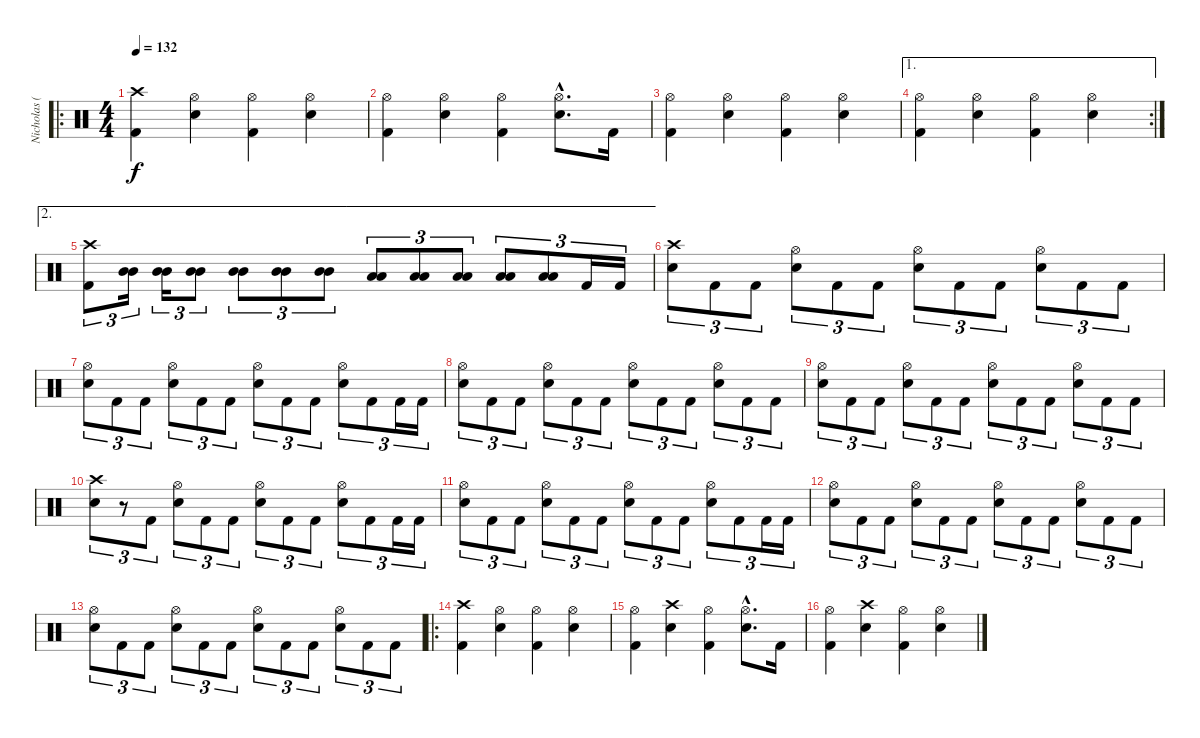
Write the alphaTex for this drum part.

\track ("Nicholas (Drums)" "Nicholas (") {instrument percussion}
\staff {score}
\articulation defaults
\ro
\ts (4 4)
\tempo 132
\clef neutral
\ks c
("Crash high (hit)" "Kick (hit) 2").4{dy f} ("Hi-Hat (open)" "Electric Snare (hit)").4 ("Hi-Hat (open)" "Kick (hit) 2").4 ("Hi-Hat (open)" "Electric Snare (hit)").4 |
("Hi-Hat (open)" "Kick (hit) 2").4 ("Hi-Hat (open)" "Electric Snare (hit)").4 ("Hi-Hat (open)" "Kick (hit) 2").4 ("Hi-Hat (open)"{hac} "Electric Snare (hit)"{hac}).8{d} "Kick (hit) 2".16 |
("Hi-Hat (open)" "Kick (hit) 2").4 ("Hi-Hat (open)" "Electric Snare (hit)").4 ("Hi-Hat (open)" "Kick (hit) 2").4 ("Hi-Hat (open)" "Electric Snare (hit)").4 |
\ae 1
\rc 2
("Hi-Hat (open)" "Kick (hit) 2").4 ("Hi-Hat (open)" "Electric Snare (hit)").4 ("Hi-Hat (open)" "Kick (hit) 2").4 ("Hi-Hat (open)" "Electric Snare (hit)").4 |
\ae 2
("Crash high (hit)" "Kick (hit) 2").8{tu (3 2)} ("Mid Tom (hit)" "Mid Tom (hit)").16{tu (3 2) balance 10} ("Mid Tom (hit)" "Mid Tom (hit)").16{tu (3 2)} ("Mid Tom (hit)" "Mid Tom (hit)").8{tu (3 2)} ("Mid Tom (hit)" "Mid Tom (hit)").8{tu (3 2)} ("Mid Tom (hit)" "Mid Tom (hit)").8{tu (3 2)} ("Mid Tom (hit)" "Mid Tom (hit)").8{tu (3 2)} ("Low Tom (hit)" "Low Tom (hit)").8{tu (3 2) balance 6} ("Low Tom (hit)" "Low Tom (hit)").8{tu (3 2)} ("Low Tom (hit)" "Low Tom (hit)").8{tu (3 2)} ("Low Tom (hit)" "Low Tom (hit)").8{tu (3 2)} ("Low Tom (hit)" "Low Tom (hit)").8{tu (3 2)} "Kick (hit) 2".16{tu (3 2) balance 8} "Kick (hit) 2".16{tu (3 2)} |
("Crash high (hit)" "Electric Snare (hit)").8{tu (3 2)} "Kick (hit) 2".8{tu (3 2)} "Kick (hit) 2".8{tu (3 2)} ("Hi-Hat (open)" "Electric Snare (hit)").8{tu (3 2)} "Kick (hit) 2".8{tu (3 2)} "Kick (hit) 2".8{tu (3 2)} ("Hi-Hat (open)" "Electric Snare (hit)").8{tu (3 2)} "Kick (hit) 2".8{tu (3 2)} "Kick (hit) 2".8{tu (3 2)} ("Hi-Hat (open)" "Electric Snare (hit)").8{tu (3 2)} "Kick (hit) 2".8{tu (3 2)} "Kick (hit) 2".8{tu (3 2)} |
("Hi-Hat (open)" "Electric Snare (hit)").8{tu (3 2)} "Kick (hit) 2".8{tu (3 2)} "Kick (hit) 2".8{tu (3 2)} ("Hi-Hat (open)" "Electric Snare (hit)").8{tu (3 2)} "Kick (hit) 2".8{tu (3 2)} "Kick (hit) 2".8{tu (3 2)} ("Hi-Hat (open)" "Electric Snare (hit)").8{tu (3 2)} "Kick (hit) 2".8{tu (3 2)} "Kick (hit) 2".8{tu (3 2)} ("Hi-Hat (open)" "Electric Snare (hit)").8{tu (3 2)} "Kick (hit) 2".8{tu (3 2)} "Kick (hit) 2".16{tu (3 2)} "Kick (hit) 2".16{tu (3 2)} |
("Hi-Hat (open)" "Electric Snare (hit)").8{tu (3 2)} "Kick (hit) 2".8{tu (3 2)} "Kick (hit) 2".8{tu (3 2)} ("Hi-Hat (open)" "Electric Snare (hit)").8{tu (3 2)} "Kick (hit) 2".8{tu (3 2)} "Kick (hit) 2".8{tu (3 2)} ("Hi-Hat (open)" "Electric Snare (hit)").8{tu (3 2)} "Kick (hit) 2".8{tu (3 2)} "Kick (hit) 2".8{tu (3 2)} ("Hi-Hat (open)" "Electric Snare (hit)").8{tu (3 2)} "Kick (hit) 2".8{tu (3 2)} "Kick (hit) 2".8{tu (3 2)} |
("Hi-Hat (open)" "Electric Snare (hit)").8{tu (3 2)} "Kick (hit) 2".8{tu (3 2)} "Kick (hit) 2".8{tu (3 2)} ("Hi-Hat (open)" "Electric Snare (hit)").8{tu (3 2)} "Kick (hit) 2".8{tu (3 2)} "Kick (hit) 2".8{tu (3 2)} ("Hi-Hat (open)" "Electric Snare (hit)").8{tu (3 2)} "Kick (hit) 2".8{tu (3 2)} "Kick (hit) 2".8{tu (3 2)} ("Hi-Hat (open)" "Electric Snare (hit)").8{tu (3 2)} "Kick (hit) 2".8{tu (3 2)} "Kick (hit) 2".8{tu (3 2)} |
("Crash high (hit)" "Electric Snare (hit)").8{tu (3 2)} r.8{tu (3 2)} "Kick (hit) 2".8{tu (3 2)} ("Hi-Hat (open)" "Electric Snare (hit)").8{tu (3 2)} "Kick (hit) 2".8{tu (3 2)} "Kick (hit) 2".8{tu (3 2)} ("Hi-Hat (open)" "Electric Snare (hit)").8{tu (3 2)} "Kick (hit) 2".8{tu (3 2)} "Kick (hit) 2".8{tu (3 2)} ("Hi-Hat (open)" "Electric Snare (hit)").8{tu (3 2)} "Kick (hit) 2".8{tu (3 2)} "Kick (hit) 2".16{tu (3 2)} "Kick (hit) 2".16{tu (3 2)} |
("Hi-Hat (open)" "Electric Snare (hit)").8{tu (3 2)} "Kick (hit) 2".8{tu (3 2)} "Kick (hit) 2".8{tu (3 2)} ("Hi-Hat (open)" "Electric Snare (hit)").8{tu (3 2)} "Kick (hit) 2".8{tu (3 2)} "Kick (hit) 2".8{tu (3 2)} ("Hi-Hat (open)" "Electric Snare (hit)").8{tu (3 2)} "Kick (hit) 2".8{tu (3 2)} "Kick (hit) 2".8{tu (3 2)} ("Hi-Hat (open)" "Electric Snare (hit)").8{tu (3 2)} "Kick (hit) 2".8{tu (3 2)} "Kick (hit) 2".16{tu (3 2)} "Kick (hit) 2".16{tu (3 2)} |
("Hi-Hat (open)" "Electric Snare (hit)").8{tu (3 2)} "Kick (hit) 2".8{tu (3 2)} "Kick (hit) 2".8{tu (3 2)} ("Hi-Hat (open)" "Electric Snare (hit)").8{tu (3 2)} "Kick (hit) 2".8{tu (3 2)} "Kick (hit) 2".8{tu (3 2)} ("Hi-Hat (open)" "Electric Snare (hit)").8{tu (3 2)} "Kick (hit) 2".8{tu (3 2)} "Kick (hit) 2".8{tu (3 2)} ("Hi-Hat (open)" "Electric Snare (hit)").8{tu (3 2)} "Kick (hit) 2".8{tu (3 2)} "Kick (hit) 2".8{tu (3 2)} |
("Hi-Hat (open)" "Electric Snare (hit)").8{tu (3 2)} "Kick (hit) 2".8{tu (3 2)} "Kick (hit) 2".8{tu (3 2)} ("Hi-Hat (open)" "Electric Snare (hit)").8{tu (3 2)} "Kick (hit) 2".8{tu (3 2)} "Kick (hit) 2".8{tu (3 2)} ("Hi-Hat (open)" "Electric Snare (hit)").8{tu (3 2)} "Kick (hit) 2".8{tu (3 2)} "Kick (hit) 2".8{tu (3 2)} ("Hi-Hat (open)" "Electric Snare (hit)").8{tu (3 2)} "Kick (hit) 2".8{tu (3 2)} "Kick (hit) 2".8{tu (3 2)} |
\ro
("Crash high (hit)" "Kick (hit) 2").4 ("Hi-Hat (open)" "Electric Snare (hit)").4 ("Hi-Hat (open)" "Kick (hit) 2").4 ("Hi-Hat (open)" "Electric Snare (hit)").4 |
("Hi-Hat (open)" "Kick (hit) 2").4 ("Crash high (hit)" "Electric Snare (hit)").4 ("Hi-Hat (open)" "Kick (hit) 2").4 ("Hi-Hat (open)"{hac} "Electric Snare (hit)"{hac}).8{d} "Kick (hit) 2".16 |
("Hi-Hat (open)" "Kick (hit) 2").4 ("Crash high (hit)" "Electric Snare (hit)").4 ("Hi-Hat (open)" "Kick (hit) 2").4 ("Hi-Hat (open)" "Electric Snare (hit)").4
